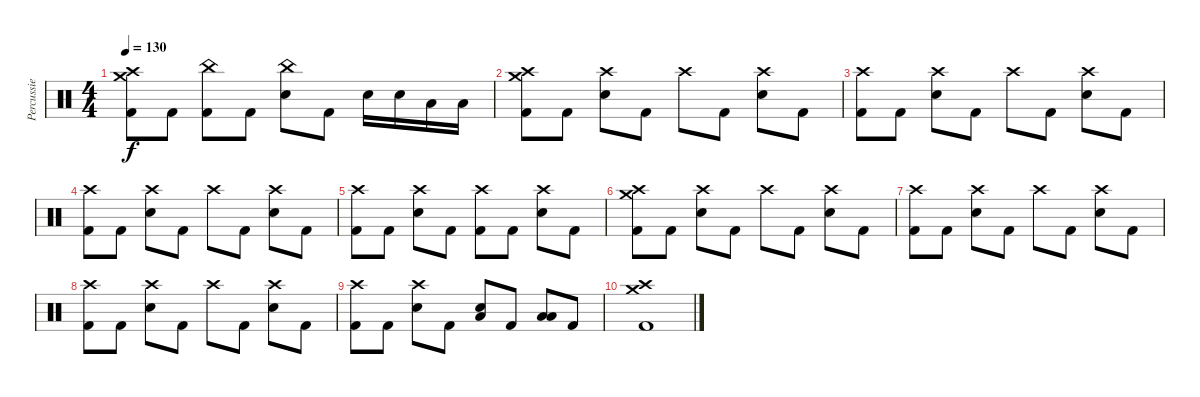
\track ("Percussie" "Percussie") {instrument percussion}
\staff {score}
\articulation defaults
\ts (4 4)
\tempo 130
\clef neutral
\ks c
("Crash medium (hit)" "Crash high (hit)" "Kick (hit) 2").8{dy f} "Kick (hit) 2".8 ("China (hit)" "Kick (hit) 2").8 "Kick (hit) 2".8 ("China (hit)" "Electric Snare (hit)").8 "Kick (hit) 2".8 "Electric Snare (hit)".16 "Electric Snare (hit)".16 "Low Tom (hit)".16 "Low Tom (hit)".16 |
("Crash medium (hit)" "Crash high (hit)" "Kick (hit) 2").8 "Kick (hit) 2".8 ("Crash high (hit)" "Electric Snare (hit)").8 "Kick (hit) 2".8 "Crash high (hit)".8 "Kick (hit) 2".8 ("Crash high (hit)" "Electric Snare (hit)").8 "Kick (hit) 2".8 |
("Crash high (hit)" "Kick (hit) 2").8 "Kick (hit) 2".8 ("Crash high (hit)" "Electric Snare (hit)").8 "Kick (hit) 2".8 "Crash high (hit)".8 "Kick (hit) 2".8 ("Crash high (hit)" "Electric Snare (hit)").8 "Kick (hit) 2".8 |
("Crash high (hit)" "Kick (hit) 2").8 "Kick (hit) 2".8 ("Crash high (hit)" "Electric Snare (hit)").8 "Kick (hit) 2".8 "Crash high (hit)".8 "Kick (hit) 2".8 ("Crash high (hit)" "Electric Snare (hit)").8 "Kick (hit) 2".8 |
("Crash high (hit)" "Kick (hit) 2").8 "Kick (hit) 2".8 ("Crash high (hit)" "Electric Snare (hit)").8 "Kick (hit) 2".8 ("Crash high (hit)" "Kick (hit) 2").8 "Kick (hit) 2".8 ("Crash high (hit)" "Electric Snare (hit)").8 "Kick (hit) 2".8 |
("Crash medium (hit)" "Crash high (hit)" "Kick (hit) 2").8 "Kick (hit) 2".8 ("Crash high (hit)" "Electric Snare (hit)").8 "Kick (hit) 2".8 "Crash high (hit)".8 "Kick (hit) 2".8 ("Crash high (hit)" "Electric Snare (hit)").8 "Kick (hit) 2".8 |
("Crash high (hit)" "Kick (hit) 2").8 "Kick (hit) 2".8 ("Crash high (hit)" "Electric Snare (hit)").8 "Kick (hit) 2".8 "Crash high (hit)".8 "Kick (hit) 2".8 ("Crash high (hit)" "Electric Snare (hit)").8 "Kick (hit) 2".8 |
("Crash high (hit)" "Kick (hit) 2").8 "Kick (hit) 2".8 ("Crash high (hit)" "Electric Snare (hit)").8 "Kick (hit) 2".8 "Crash high (hit)".8 "Kick (hit) 2".8 ("Crash high (hit)" "Electric Snare (hit)").8 "Kick (hit) 2".8 |
("Crash high (hit)" "Kick (hit) 2").8 "Kick (hit) 2".8 ("Crash high (hit)" "Electric Snare (hit)").8 "Kick (hit) 2".8 ("Low Floor Tom (hit)" "Electric Snare (hit)").8 "Kick (hit) 2".8 ("Low Tom (hit)" "Low Floor Tom (hit)").8 "Kick (hit) 2".8 |
("Crash medium (hit)" "Crash high (hit)" "Kick (hit) 2").1
